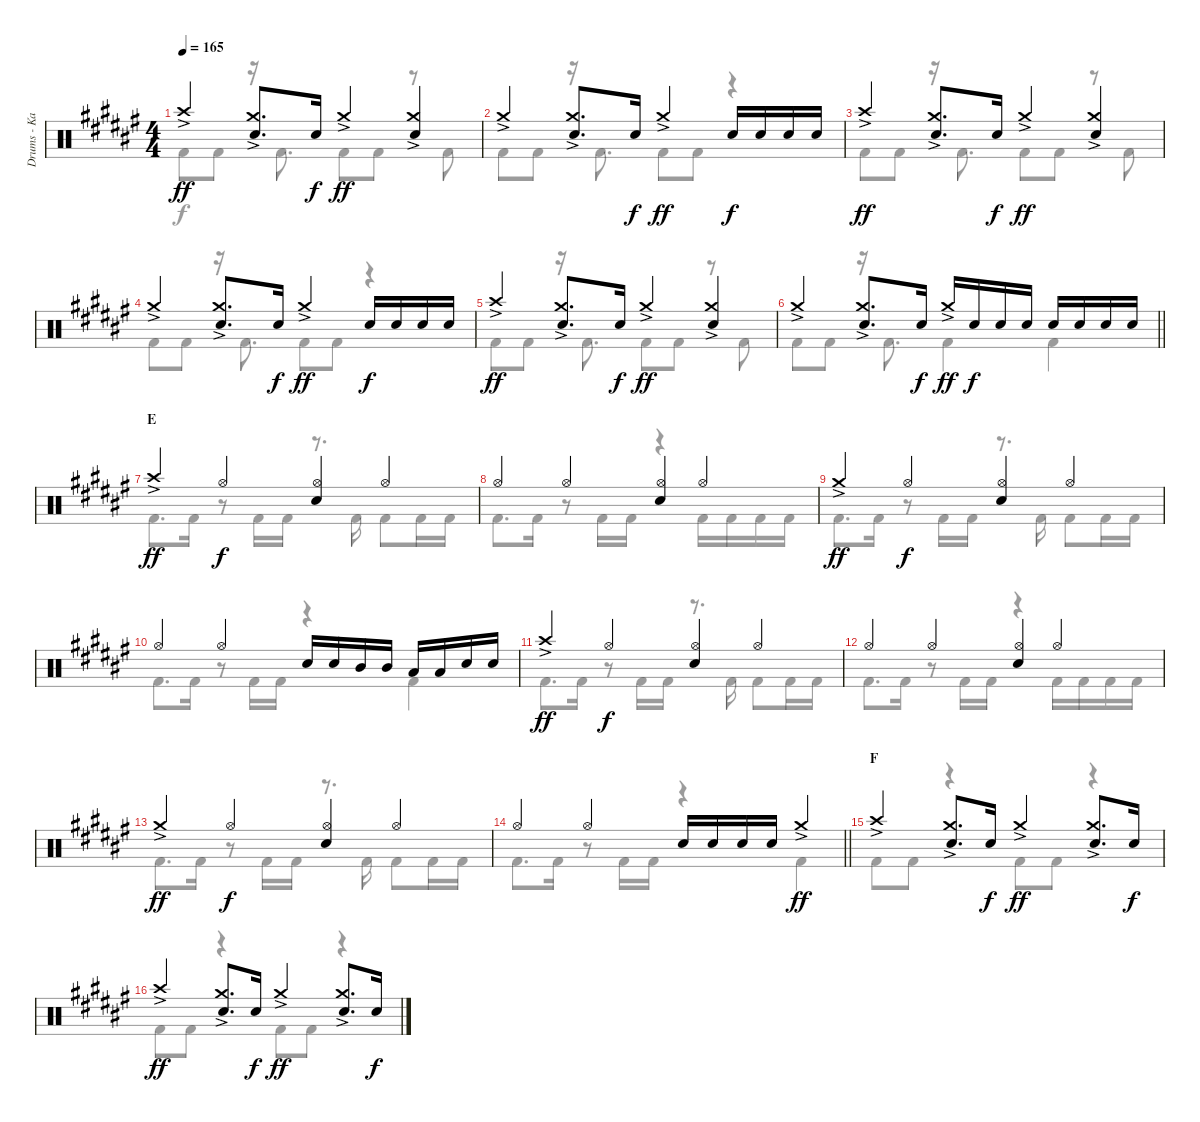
\track ("Drums - Kai" "Drums - Ka") {instrument percussion}
\staff {score}
\articulation defaults
\voice
\ts (4 4)
\tempo 165
\clef neutral
\ks f# "Crash high (hit)"{ac}.4{dy ff}
("Crash medium (hit)"{ac} "Electric Snare (hit)").8{d} "Electric Snare (hit)".16{dy f} "Crash medium (hit)"{ac}.4{dy ff} ("Crash medium (hit)"{ac} "Electric Snare (hit)").4 |
"Crash medium (hit)"{ac}.4 ("Crash medium (hit)"{ac} "Electric Snare (hit)").8{d} "Electric Snare (hit)".16{dy f} "Crash medium (hit)"{ac}.4{dy ff} "Electric Snare (hit)".16{dy f} "Electric Snare (hit)".16 "Electric Snare (hit)".16 "Electric Snare (hit)".16 |
"Crash high (hit)"{ac}.4{dy ff} ("Crash medium (hit)"{ac} "Electric Snare (hit)").8{d} "Electric Snare (hit)".16{dy f} "Crash medium (hit)"{ac}.4{dy ff} ("Crash medium (hit)"{ac} "Electric Snare (hit)").4 |
"Crash medium (hit)"{ac}.4 ("Crash medium (hit)"{ac} "Electric Snare (hit)").8{d} "Electric Snare (hit)".16{dy f} "Crash medium (hit)"{ac}.4{dy ff} "Electric Snare (hit)".16{dy f} "Electric Snare (hit)".16 "Electric Snare (hit)".16 "Electric Snare (hit)".16 |
"Crash high (hit)"{ac}.4{dy ff} ("Crash medium (hit)"{ac} "Electric Snare (hit)").8{d} "Electric Snare (hit)".16{dy f} "Crash medium (hit)"{ac}.4{dy ff} ("Crash medium (hit)"{ac} "Electric Snare (hit)").4 |
\barLineRight lightlight "Crash medium (hit)"{ac}.4
("Crash medium (hit)"{ac} "Electric Snare (hit)").8{d} "Electric Snare (hit)".16{dy f} "Crash medium (hit)"{ac}.16{dy ff} "Electric Snare (hit)".16{dy f} "Electric Snare (hit)".16 "Electric Snare (hit)".16 "Electric Snare (hit)".16 "Electric Snare (hit)".16 "Electric Snare (hit)".16 "Electric Snare (hit)".16 |
\section ("" "E")
"Crash high (hit)"{ac}.4{dy ff} "Hi-Hat (open)".4{dy f} ("Hi-Hat (open)" "Electric Snare (hit)").4 "Hi-Hat (open)".4 |
"Hi-Hat (open)".4 "Hi-Hat (open)".4 ("Hi-Hat (open)" "Electric Snare (hit)").4 "Hi-Hat (open)".4 |
"Crash medium (hit)"{ac}.4{dy ff} "Hi-Hat (open)".4{dy f} ("Hi-Hat (open)" "Electric Snare (hit)").4 "Hi-Hat (open)".4 |
"Hi-Hat (open)".4 "Hi-Hat (open)".4 "Electric Snare (hit)".16 "Electric Snare (hit)".16 "Mid Tom (hit)".16 "Mid Tom (hit)".16 "Low Tom (hit)".16 "Low Tom (hit)".16 "Electric Snare (hit)".16 "Electric Snare (hit)".16 |
"Crash high (hit)"{ac}.4{dy ff} "Hi-Hat (open)".4{dy f} ("Hi-Hat (open)" "Electric Snare (hit)").4 "Hi-Hat (open)".4 |
"Hi-Hat (open)".4 "Hi-Hat (open)".4 ("Hi-Hat (open)" "Electric Snare (hit)").4 "Hi-Hat (open)".4 |
"Crash medium (hit)"{ac}.4{dy ff} "Hi-Hat (open)".4{dy f} ("Hi-Hat (open)" "Electric Snare (hit)").4 "Hi-Hat (open)".4 |
\barLineRight lightlight "Hi-Hat (open)".4 "Hi-Hat (open)".4 "Electric Snare (hit)".16 "Electric Snare (hit)".16 "Electric Snare (hit)".16 "Electric Snare (hit)".16 "Crash medium (hit)"{ac}.4{dy ff}
|
\section ("" "F")
"Crash high (hit)"{ac}.4 ("Crash medium (hit)"{ac} "Electric Snare (hit)").8{d} "Electric Snare (hit)".16{dy f} "Crash medium (hit)"{ac}.4{dy ff} ("Crash medium (hit)"{ac} "Electric Snare (hit)").8{d} "Electric Snare (hit)".16{dy f} |
"Crash high (hit)"{ac}.4{dy ff} ("Crash medium (hit)"{ac} "Electric Snare (hit)").8{d} "Electric Snare (hit)".16{dy f} "Crash medium (hit)"{ac}.4{dy ff} ("Crash medium (hit)"{ac} "Electric Snare (hit)").8{d} "Electric Snare (hit)".16{dy f}
\voice
\clef neutral
\ottava regular
\simile none
\ks f# "Kick (hit) 2".8{dy f} "Kick (hit) 2".8
r.16 "Kick (hit) 2".8{d} "Kick (hit) 2".8 "Kick (hit) 2".8 r.8 "Kick (hit) 2".8 |
"Kick (hit) 2".8 "Kick (hit) 2".8 r.16 "Kick (hit) 2".8{d} "Kick (hit) 2".8 "Kick (hit) 2".8 r.4 |
"Kick (hit) 2".8 "Kick (hit) 2".8 r.16 "Kick (hit) 2".8{d} "Kick (hit) 2".8 "Kick (hit) 2".8 r.8 "Kick (hit) 2".8 |
"Kick (hit) 2".8 "Kick (hit) 2".8 r.16 "Kick (hit) 2".8{d} "Kick (hit) 2".8 "Kick (hit) 2".8 r.4 |
"Kick (hit) 2".8 "Kick (hit) 2".8 r.16 "Kick (hit) 2".8{d} "Kick (hit) 2".8 "Kick (hit) 2".8 r.8 "Kick (hit) 2".8 |
\barLineRight lightlight "Kick (hit) 2".8 "Kick (hit) 2".8
r.16 "Kick (hit) 2".8{d} "Kick (hit) 2".4 "Kick (hit) 2".4 |
"Kick (hit) 2".8{d} "Kick (hit) 2".16 r.8 "Kick (hit) 2".16 "Kick (hit) 2".16 r.8{d} "Kick (hit) 2".16 "Kick (hit) 2".8 "Kick (hit) 2".16 "Kick (hit) 2".16 |
"Kick (hit) 2".8{d} "Kick (hit) 2".16 r.8 "Kick (hit) 2".16 "Kick (hit) 2".16 r.4 "Kick (hit) 2".16 "Kick (hit) 2".16 "Kick (hit) 2".16 "Kick (hit) 2".16 |
"Kick (hit) 2".8{d} "Kick (hit) 2".16 r.8 "Kick (hit) 2".16 "Kick (hit) 2".16 r.8{d} "Kick (hit) 2".16 "Kick (hit) 2".8 "Kick (hit) 2".16 "Kick (hit) 2".16 |
"Kick (hit) 2".8{d} "Kick (hit) 2".16 r.8 "Kick (hit) 2".16 "Kick (hit) 2".16 r.4 "Kick (hit) 2".4 |
"Kick (hit) 2".8{d} "Kick (hit) 2".16 r.8 "Kick (hit) 2".16 "Kick (hit) 2".16 r.8{d} "Kick (hit) 2".16 "Kick (hit) 2".8 "Kick (hit) 2".16 "Kick (hit) 2".16 |
"Kick (hit) 2".8{d} "Kick (hit) 2".16 r.8 "Kick (hit) 2".16 "Kick (hit) 2".16 r.4 "Kick (hit) 2".16 "Kick (hit) 2".16 "Kick (hit) 2".16 "Kick (hit) 2".16 |
"Kick (hit) 2".8{d} "Kick (hit) 2".16 r.8 "Kick (hit) 2".16 "Kick (hit) 2".16 r.8{d} "Kick (hit) 2".16 "Kick (hit) 2".8 "Kick (hit) 2".16 "Kick (hit) 2".16 |
\barLineRight lightlight "Kick (hit) 2".8{d} "Kick (hit) 2".16
r.8 "Kick (hit) 2".16 "Kick (hit) 2".16 r.4 "Kick (hit) 2".4 |
"Kick (hit) 2".8 "Kick (hit) 2".8 r.4 "Kick (hit) 2".8 "Kick (hit) 2".8 r.4 |
"Kick (hit) 2".8 "Kick (hit) 2".8 r.4 "Kick (hit) 2".8 "Kick (hit) 2".8 r.4
